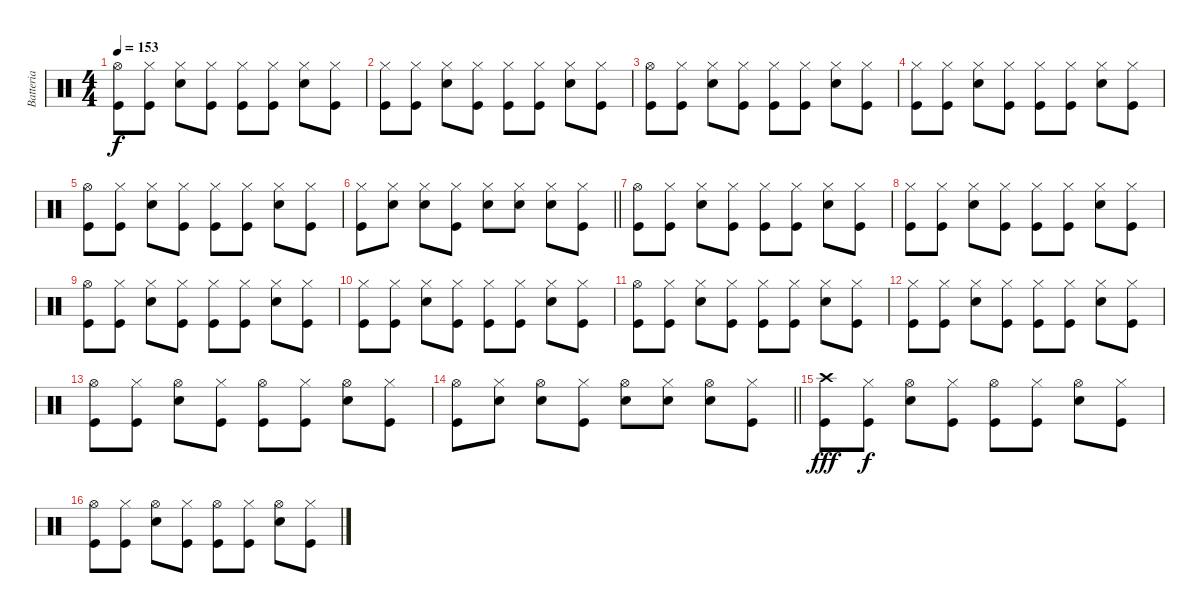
\track ("Batteria" "Batteria") {instrument percussion}
\staff {score}
\articulation defaults
\ts (4 4)
\tempo 153
\clef neutral
\ks c
("Kick (hit)" "Hi-Hat (open)").8{dy f} ("Kick (hit)" "Hi-Hat (closed)").8 ("Snare (hit) 2" "Hi-Hat (closed)").8 ("Kick (hit)" "Hi-Hat (closed)").8 ("Kick (hit)" "Hi-Hat (closed)").8 ("Kick (hit)" "Hi-Hat (closed)").8 ("Snare (hit) 2" "Hi-Hat (closed)").8 ("Kick (hit)" "Hi-Hat (closed)").8 |
("Kick (hit)" "Hi-Hat (closed)").8 ("Kick (hit)" "Hi-Hat (closed)").8 ("Snare (hit) 2" "Hi-Hat (closed)").8 ("Kick (hit)" "Hi-Hat (closed)").8 ("Kick (hit)" "Hi-Hat (closed)").8 ("Kick (hit)" "Hi-Hat (closed)").8 ("Snare (hit) 2" "Hi-Hat (closed)").8 ("Kick (hit)" "Hi-Hat (closed)").8 |
("Kick (hit)" "Hi-Hat (open)").8 ("Kick (hit)" "Hi-Hat (closed)").8 ("Snare (hit) 2" "Hi-Hat (closed)").8 ("Kick (hit)" "Hi-Hat (closed)").8 ("Kick (hit)" "Hi-Hat (closed)").8 ("Kick (hit)" "Hi-Hat (closed)").8 ("Snare (hit) 2" "Hi-Hat (closed)").8 ("Kick (hit)" "Hi-Hat (closed)").8 |
("Kick (hit)" "Hi-Hat (closed)").8 ("Kick (hit)" "Hi-Hat (closed)").8 ("Snare (hit) 2" "Hi-Hat (closed)").8 ("Kick (hit)" "Hi-Hat (closed)").8 ("Kick (hit)" "Hi-Hat (closed)").8 ("Kick (hit)" "Hi-Hat (closed)").8 ("Snare (hit) 2" "Hi-Hat (closed)").8 ("Kick (hit)" "Hi-Hat (closed)").8 |
("Kick (hit)" "Hi-Hat (open)").8 ("Kick (hit)" "Hi-Hat (closed)").8 ("Snare (hit) 2" "Hi-Hat (closed)").8 ("Kick (hit)" "Hi-Hat (closed)").8 ("Kick (hit)" "Hi-Hat (closed)").8 ("Kick (hit)" "Hi-Hat (closed)").8 ("Snare (hit) 2" "Hi-Hat (closed)").8 ("Kick (hit)" "Hi-Hat (closed)").8 |
\barLineRight lightlight
("Kick (hit)" "Hi-Hat (closed)").8 ("Snare (hit) 2" "Hi-Hat (closed)").8 ("Snare (hit) 2" "Hi-Hat (closed)").8 ("Kick (hit)" "Hi-Hat (closed)").8 ("Snare (hit) 2" "Hi-Hat (closed)").8 ("Snare (hit) 2" "Hi-Hat (closed)").8 ("Snare (hit) 2" "Hi-Hat (closed)").8 ("Kick (hit)" "Hi-Hat (closed)").8 |
("Kick (hit)" "Hi-Hat (open)").8 ("Kick (hit)" "Hi-Hat (closed)").8 ("Snare (hit) 2" "Hi-Hat (closed)").8 ("Kick (hit)" "Hi-Hat (closed)").8 ("Kick (hit)" "Hi-Hat (closed)").8 ("Kick (hit)" "Hi-Hat (closed)").8 ("Snare (hit) 2" "Hi-Hat (closed)").8 ("Kick (hit)" "Hi-Hat (closed)").8 |
("Kick (hit)" "Hi-Hat (closed)").8 ("Kick (hit)" "Hi-Hat (closed)").8 ("Snare (hit) 2" "Hi-Hat (closed)").8 ("Kick (hit)" "Hi-Hat (closed)").8 ("Kick (hit)" "Hi-Hat (closed)").8 ("Kick (hit)" "Hi-Hat (closed)").8 ("Snare (hit) 2" "Hi-Hat (closed)").8 ("Kick (hit)" "Hi-Hat (closed)").8 |
("Kick (hit)" "Hi-Hat (open)").8 ("Kick (hit)" "Hi-Hat (closed)").8 ("Snare (hit) 2" "Hi-Hat (closed)").8 ("Kick (hit)" "Hi-Hat (closed)").8 ("Kick (hit)" "Hi-Hat (closed)").8 ("Kick (hit)" "Hi-Hat (closed)").8 ("Snare (hit) 2" "Hi-Hat (closed)").8 ("Kick (hit)" "Hi-Hat (closed)").8 |
("Kick (hit)" "Hi-Hat (closed)").8 ("Kick (hit)" "Hi-Hat (closed)").8 ("Snare (hit) 2" "Hi-Hat (closed)").8 ("Kick (hit)" "Hi-Hat (closed)").8 ("Kick (hit)" "Hi-Hat (closed)").8 ("Kick (hit)" "Hi-Hat (closed)").8 ("Snare (hit) 2" "Hi-Hat (closed)").8 ("Kick (hit)" "Hi-Hat (closed)").8 |
("Kick (hit)" "Hi-Hat (open)").8 ("Kick (hit)" "Hi-Hat (closed)").8 ("Snare (hit) 2" "Hi-Hat (closed)").8 ("Kick (hit)" "Hi-Hat (closed)").8 ("Kick (hit)" "Hi-Hat (closed)").8 ("Kick (hit)" "Hi-Hat (closed)").8 ("Snare (hit) 2" "Hi-Hat (closed)").8 ("Kick (hit)" "Hi-Hat (closed)").8 |
("Kick (hit)" "Hi-Hat (closed)").8 ("Kick (hit)" "Hi-Hat (closed)").8 ("Snare (hit) 2" "Hi-Hat (closed)").8 ("Kick (hit)" "Hi-Hat (closed)").8 ("Kick (hit)" "Hi-Hat (closed)").8 ("Kick (hit)" "Hi-Hat (closed)").8 ("Snare (hit) 2" "Hi-Hat (closed)").8 ("Kick (hit)" "Hi-Hat (closed)").8 |
("Kick (hit)" "Hi-Hat (open)").8 ("Kick (hit)" "Hi-Hat (closed)").8 ("Snare (hit) 2" "Hi-Hat (open)").8 ("Kick (hit)" "Hi-Hat (closed)").8 ("Kick (hit)" "Hi-Hat (open)").8 ("Kick (hit)" "Hi-Hat (closed)").8 ("Snare (hit) 2" "Hi-Hat (open)").8 ("Kick (hit)" "Hi-Hat (closed)").8 |
\barLineRight lightlight
("Kick (hit)" "Hi-Hat (open)").8 ("Snare (hit) 2" "Hi-Hat (closed)").8 ("Snare (hit) 2" "Hi-Hat (open)").8 ("Kick (hit)" "Hi-Hat (closed)").8 ("Snare (hit) 2" "Hi-Hat (open)").8 ("Snare (hit) 2" "Hi-Hat (closed)").8 ("Snare (hit) 2" "Hi-Hat (open)").8 ("Kick (hit)" "Hi-Hat (closed)").8 |
("Kick (hit)" "Crash high (hit)").8{dy fff} ("Kick (hit)" "Hi-Hat (closed)").8{dy f} ("Snare (hit) 2" "Hi-Hat (open)").8 ("Kick (hit)" "Hi-Hat (closed)").8 ("Kick (hit)" "Hi-Hat (open)").8 ("Kick (hit)" "Hi-Hat (closed)").8 ("Snare (hit) 2" "Hi-Hat (open)").8 ("Kick (hit)" "Hi-Hat (closed)").8 |
("Kick (hit)" "Hi-Hat (open)").8 ("Kick (hit)" "Hi-Hat (closed)").8 ("Snare (hit) 2" "Hi-Hat (open)").8 ("Kick (hit)" "Hi-Hat (closed)").8 ("Kick (hit)" "Hi-Hat (open)").8 ("Kick (hit)" "Hi-Hat (closed)").8 ("Snare (hit) 2" "Hi-Hat (open)").8 ("Kick (hit)" "Hi-Hat (closed)").8
